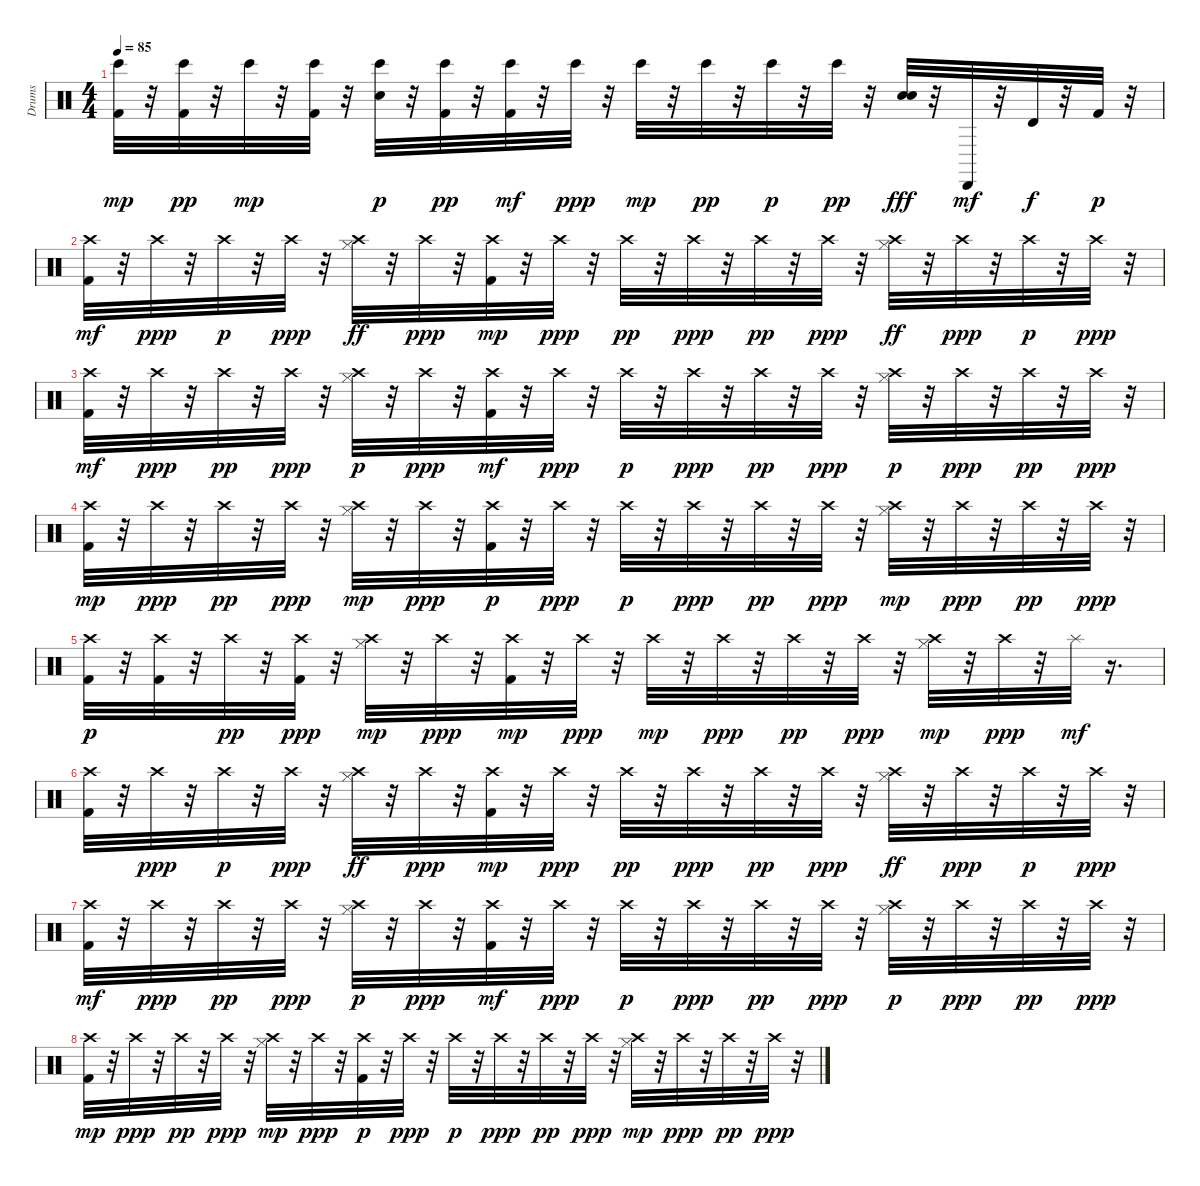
\track ("Drums" "Drums") {instrument percussion}
\staff {score}
\articulation defaults
\ts (4 4)
\tempo 85
\clef neutral
\ks c
("Bongo High (hit)" "Kick (hit) 2").32{dy mp} r.32 ("Kick (hit) 2" "Bongo High (hit)").32{dy pp} r.32 "Bongo High (hit)".32{dy mp} r.32 ("Bongo High (hit)" "Kick (hit) 2").32 r.32 ("Snare (hit) 2" "Bongo High (hit)").32{dy p} r.32 ("Kick (hit) 2" "Bongo High (hit)").32{dy pp} r.32 ("Kick (hit) 2" "Bongo High (hit)").32{dy mf} r.32 "Bongo High (hit)".32{dy ppp} r.32 "Bongo High (hit)".32{dy mp} r.32 "Bongo High (hit)".32{dy pp} r.32 "Bongo High (hit)".32{dy p} r.32 "Bongo High (hit)".32{dy pp} r.32 ("Snare (hit) 2" "Snare (hit) 2").32{dy fff} r.32 "Cabasa (hit)".32{dy mf} r.32 "Timbale high (hit)".32{dy f} r.32 "Kick (hit) 2".32{dy p} r.32 |
("Crash high (hit)" "Kick (hit) 2").32{dy mf} r.32 "Crash high (hit)".32{dy ppp} r.32 "Crash high (hit)".32{dy p} r.32 "Crash high (hit)".32{dy ppp} r.32 ("Crash high (hit)" "Hi-Hat (closed)").32{dy ff} r.32 "Crash high (hit)".32{dy ppp} r.32 ("Crash high (hit)" "Kick (hit) 2").32{dy mp} r.32 "Crash high (hit)".32{dy ppp} r.32 "Crash high (hit)".32{dy pp} r.32 "Crash high (hit)".32{dy ppp} r.32 "Crash high (hit)".32{dy pp} r.32 "Crash high (hit)".32{dy ppp} r.32 ("Crash high (hit)" "Hi-Hat (closed)").32{dy ff} r.32 "Crash high (hit)".32{dy ppp} r.32 "Crash high (hit)".32{dy p} r.32 "Crash high (hit)".32{dy ppp} r.32 |
("Crash high (hit)" "Kick (hit) 2").32{dy mf} r.32 "Crash high (hit)".32{dy ppp} r.32 "Crash high (hit)".32{dy pp} r.32 "Crash high (hit)".32{dy ppp} r.32 ("Hi-Hat (closed)" "Crash high (hit)").32{dy p} r.32 "Crash high (hit)".32{dy ppp} r.32 ("Crash high (hit)" "Kick (hit) 2").32{dy mf} r.32 "Crash high (hit)".32{dy ppp} r.32 "Crash high (hit)".32{dy p} r.32 "Crash high (hit)".32{dy ppp} r.32 "Crash high (hit)".32{dy pp} r.32 "Crash high (hit)".32{dy ppp} r.32 ("Hi-Hat (closed)" "Crash high (hit)").32{dy p} r.32 "Crash high (hit)".32{dy ppp} r.32 "Crash high (hit)".32{dy pp} r.32 "Crash high (hit)".32{dy ppp} r.32 |
("Kick (hit) 2" "Crash high (hit)").32{dy mp} r.32 "Crash high (hit)".32{dy ppp} r.32 "Crash high (hit)".32{dy pp} r.32 "Crash high (hit)".32{dy ppp} r.32 ("Hi-Hat (closed)" "Crash high (hit)").32{dy mp} r.32 "Crash high (hit)".32{dy ppp} r.32 ("Kick (hit) 2" "Crash high (hit)").32{dy p} r.32 "Crash high (hit)".32{dy ppp} r.32 "Crash high (hit)".32{dy p} r.32 "Crash high (hit)".32{dy ppp} r.32 "Crash high (hit)".32{dy pp} r.32 "Crash high (hit)".32{dy ppp} r.32 ("Hi-Hat (closed)" "Crash high (hit)").32{dy mp} r.32 "Crash high (hit)".32{dy ppp} r.32 "Crash high (hit)".32{dy pp} r.32 "Crash high (hit)".32{dy ppp} r.32 |
("Crash high (hit)" "Kick (hit) 2").32{dy p} r.32 ("Kick (hit) 2" "Crash high (hit)").32 r.32 "Crash high (hit)".32{dy pp} r.32 ("Kick (hit) 2" "Crash high (hit)").32{dy ppp} r.32 ("Hi-Hat (closed)" "Crash high (hit)").32{dy mp} r.32 "Crash high (hit)".32{dy ppp} r.32 ("Crash high (hit)" "Kick (hit) 2").32{dy mp} r.32 "Crash high (hit)".32{dy ppp} r.32 "Crash high (hit)".32{dy mp} r.32 "Crash high (hit)".32{dy ppp} r.32 "Crash high (hit)".32{dy pp} r.32 "Crash high (hit)".32{dy ppp} r.32 ("Hi-Hat (closed)" "Crash high (hit)").32{dy mp} r.32 "Crash high (hit)".32{dy ppp} r.32 "Splash (hit)".32{dy mf} r.16{d} |
("Crash high (hit)" "Kick (hit) 2").32 r.32 "Crash high (hit)".32{dy ppp} r.32 "Crash high (hit)".32{dy p} r.32 "Crash high (hit)".32{dy ppp} r.32 ("Crash high (hit)" "Hi-Hat (closed)").32{dy ff} r.32 "Crash high (hit)".32{dy ppp} r.32 ("Crash high (hit)" "Kick (hit) 2").32{dy mp} r.32 "Crash high (hit)".32{dy ppp} r.32 "Crash high (hit)".32{dy pp} r.32 "Crash high (hit)".32{dy ppp} r.32 "Crash high (hit)".32{dy pp} r.32 "Crash high (hit)".32{dy ppp} r.32 ("Crash high (hit)" "Hi-Hat (closed)").32{dy ff} r.32 "Crash high (hit)".32{dy ppp} r.32 "Crash high (hit)".32{dy p} r.32 "Crash high (hit)".32{dy ppp} r.32 |
("Crash high (hit)" "Kick (hit) 2").32{dy mf} r.32 "Crash high (hit)".32{dy ppp} r.32 "Crash high (hit)".32{dy pp} r.32 "Crash high (hit)".32{dy ppp} r.32 ("Hi-Hat (closed)" "Crash high (hit)").32{dy p} r.32 "Crash high (hit)".32{dy ppp} r.32 ("Crash high (hit)" "Kick (hit) 2").32{dy mf} r.32 "Crash high (hit)".32{dy ppp} r.32 "Crash high (hit)".32{dy p} r.32 "Crash high (hit)".32{dy ppp} r.32 "Crash high (hit)".32{dy pp} r.32 "Crash high (hit)".32{dy ppp} r.32 ("Hi-Hat (closed)" "Crash high (hit)").32{dy p} r.32 "Crash high (hit)".32{dy ppp} r.32 "Crash high (hit)".32{dy pp} r.32 "Crash high (hit)".32{dy ppp} r.32 |
("Kick (hit) 2" "Crash high (hit)").32{dy mp} r.32 "Crash high (hit)".32{dy ppp} r.32 "Crash high (hit)".32{dy pp} r.32 "Crash high (hit)".32{dy ppp} r.32 ("Hi-Hat (closed)" "Crash high (hit)").32{dy mp} r.32 "Crash high (hit)".32{dy ppp} r.32 ("Kick (hit) 2" "Crash high (hit)").32{dy p} r.32 "Crash high (hit)".32{dy ppp} r.32 "Crash high (hit)".32{dy p} r.32 "Crash high (hit)".32{dy ppp} r.32 "Crash high (hit)".32{dy pp} r.32 "Crash high (hit)".32{dy ppp} r.32 ("Hi-Hat (closed)" "Crash high (hit)").32{dy mp} r.32 "Crash high (hit)".32{dy ppp} r.32 "Crash high (hit)".32{dy pp} r.32 "Crash high (hit)".32{dy ppp} r.32
